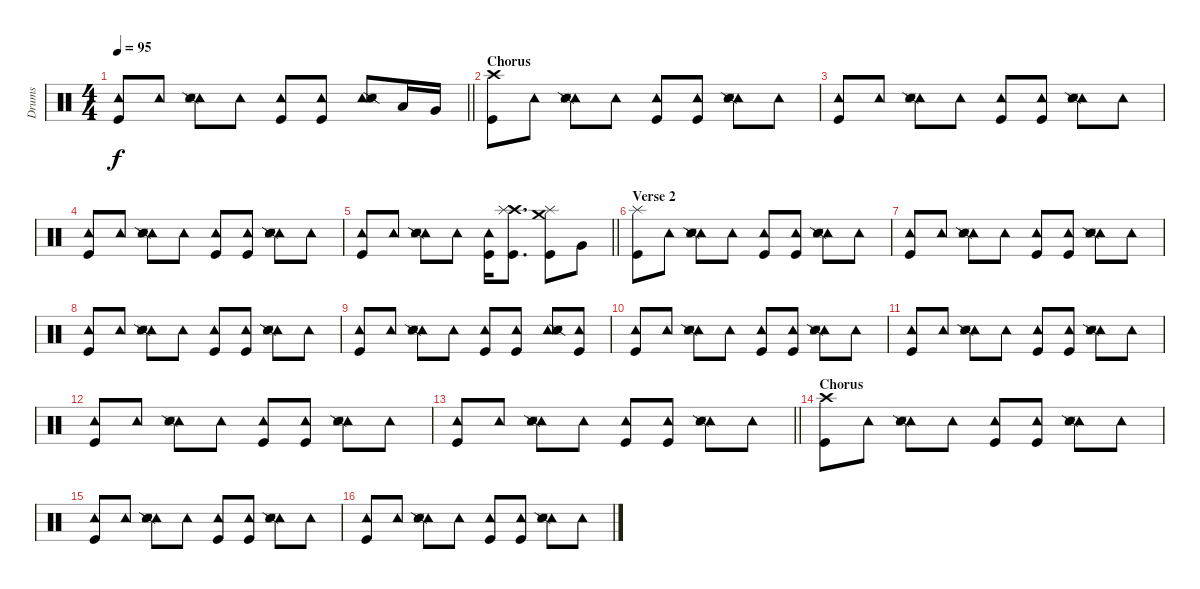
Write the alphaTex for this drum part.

\track ("Drums" "Drums") {instrument percussion}
\staff {score}
\articulation defaults
\ts (4 4)
\tempo 95
\clef neutral
\barLineRight lightlight
\ks c
("Tambourine (hit)" "Kick (hit)").8{dy f} "Tambourine (hit)".8 ("Tambourine (hit)" "Snare (side stick) 3" "Snare (side stick) 2").8 "Tambourine (hit)".8 ("Tambourine (hit)" "Kick (hit)").8 ("Tambourine (hit)" "Kick (hit)").8 ("Tambourine (hit)" "Snare (side stick) 3" "Snare (side stick) 2").8 "Low Tom (hit)".16 "Very Low Tom (hit)".16 |
\section ("" "Chorus")
("Crash high (hit)" "Kick (hit)").8 "Tambourine (hit)".8 ("Tambourine (hit)" "Snare (side stick) 3" "Snare (side stick) 2").8 "Tambourine (hit)".8 ("Tambourine (hit)" "Kick (hit)").8 ("Tambourine (hit)" "Kick (hit)").8 ("Tambourine (hit)" "Snare (side stick) 3" "Snare (side stick) 2").8 "Tambourine (hit)".8 |
("Tambourine (hit)" "Kick (hit)").8 "Tambourine (hit)".8 ("Tambourine (hit)" "Snare (side stick) 3" "Snare (side stick) 2").8 "Tambourine (hit)".8 ("Tambourine (hit)" "Kick (hit)").8 ("Tambourine (hit)" "Kick (hit)").8 ("Tambourine (hit)" "Snare (side stick) 3" "Snare (side stick) 2").8 "Tambourine (hit)".8 |
("Tambourine (hit)" "Kick (hit)").8 "Tambourine (hit)".8 ("Tambourine (hit)" "Snare (side stick) 3" "Snare (side stick) 2").8 "Tambourine (hit)".8 ("Tambourine (hit)" "Kick (hit)").8 ("Tambourine (hit)" "Kick (hit)").8 ("Tambourine (hit)" "Snare (side stick) 3" "Snare (side stick) 2").8 "Tambourine (hit)".8 |
\barLineRight lightlight
("Tambourine (hit)" "Kick (hit)").8 "Tambourine (hit)".8 ("Tambourine (hit)" "Snare (side stick) 3" "Snare (side stick) 2").8 "Tambourine (hit)".8 ("Tambourine (hit)" "Kick (hit)").16 ("Crash high (hit)" "Splash (hit)" "Kick (hit)").8{d} ("Crash medium (hit)" "Splash (hit)" "Kick (hit)").8 "Very Low Tom (hit)".8 |
\section ("" "Verse 2")
("Splash (hit)" "Kick (hit)").8 "Tambourine (hit)".8 ("Tambourine (hit)" "Snare (side stick) 3" "Snare (side stick) 2").8 "Tambourine (hit)".8 ("Tambourine (hit)" "Kick (hit)").8 ("Tambourine (hit)" "Kick (hit)").8 ("Tambourine (hit)" "Snare (side stick) 3" "Snare (side stick) 2").8 "Tambourine (hit)".8 |
("Tambourine (hit)" "Kick (hit)").8 "Tambourine (hit)".8 ("Tambourine (hit)" "Snare (side stick) 3" "Snare (side stick) 2").8 "Tambourine (hit)".8 ("Tambourine (hit)" "Kick (hit)").8 ("Tambourine (hit)" "Kick (hit)").8 ("Tambourine (hit)" "Snare (side stick) 3" "Snare (side stick) 2").8 "Tambourine (hit)".8 |
("Tambourine (hit)" "Kick (hit)").8 "Tambourine (hit)".8 ("Tambourine (hit)" "Snare (side stick) 3" "Snare (side stick) 2").8 "Tambourine (hit)".8 ("Tambourine (hit)" "Kick (hit)").8 ("Tambourine (hit)" "Kick (hit)").8 ("Tambourine (hit)" "Snare (side stick) 3" "Snare (side stick) 2").8 "Tambourine (hit)".8 |
("Tambourine (hit)" "Kick (hit)").8 "Tambourine (hit)".8 ("Tambourine (hit)" "Snare (side stick) 3" "Snare (side stick) 2").8 "Tambourine (hit)".8 ("Tambourine (hit)" "Kick (hit)").8 ("Tambourine (hit)" "Kick (hit)").8 ("Tambourine (hit)" "Snare (side stick) 3" "Snare (side stick) 2").8 ("Tambourine (hit)" "Kick (hit)").8 |
("Tambourine (hit)" "Kick (hit)").8 "Tambourine (hit)".8 ("Tambourine (hit)" "Snare (side stick) 3" "Snare (side stick) 2").8 "Tambourine (hit)".8 ("Tambourine (hit)" "Kick (hit)").8 ("Tambourine (hit)" "Kick (hit)").8 ("Tambourine (hit)" "Snare (side stick) 3" "Snare (side stick) 2").8 "Tambourine (hit)".8 |
("Tambourine (hit)" "Kick (hit)").8 "Tambourine (hit)".8 ("Tambourine (hit)" "Snare (side stick) 3" "Snare (side stick) 2").8 "Tambourine (hit)".8 ("Tambourine (hit)" "Kick (hit)").8 ("Tambourine (hit)" "Kick (hit)").8 ("Tambourine (hit)" "Snare (side stick) 3" "Snare (side stick) 2").8 "Tambourine (hit)".8 |
("Tambourine (hit)" "Kick (hit)").8 "Tambourine (hit)".8 ("Tambourine (hit)" "Snare (side stick) 3" "Snare (side stick) 2").8 "Tambourine (hit)".8 ("Tambourine (hit)" "Kick (hit)").8 ("Tambourine (hit)" "Kick (hit)").8 ("Tambourine (hit)" "Snare (side stick) 3" "Snare (side stick) 2").8 "Tambourine (hit)".8 |
\barLineRight lightlight
("Tambourine (hit)" "Kick (hit)").8 "Tambourine (hit)".8 ("Tambourine (hit)" "Snare (side stick) 3" "Snare (side stick) 2").8 "Tambourine (hit)".8 ("Tambourine (hit)" "Kick (hit)").8 ("Tambourine (hit)" "Kick (hit)").8 ("Tambourine (hit)" "Snare (side stick) 3" "Snare (side stick) 2").8 "Tambourine (hit)".8 |
\section ("" "Chorus")
("Crash high (hit)" "Kick (hit)").8 "Tambourine (hit)".8 ("Tambourine (hit)" "Snare (side stick) 3" "Snare (side stick) 2").8 "Tambourine (hit)".8 ("Tambourine (hit)" "Kick (hit)").8 ("Tambourine (hit)" "Kick (hit)").8 ("Tambourine (hit)" "Snare (side stick) 3" "Snare (side stick) 2").8 "Tambourine (hit)".8 |
("Tambourine (hit)" "Kick (hit)").8 "Tambourine (hit)".8 ("Tambourine (hit)" "Snare (side stick) 3" "Snare (side stick) 2").8 "Tambourine (hit)".8 ("Tambourine (hit)" "Kick (hit)").8 ("Tambourine (hit)" "Kick (hit)").8 ("Tambourine (hit)" "Snare (side stick) 3" "Snare (side stick) 2").8 "Tambourine (hit)".8 |
("Tambourine (hit)" "Kick (hit)").8 "Tambourine (hit)".8 ("Tambourine (hit)" "Snare (side stick) 3" "Snare (side stick) 2").8 "Tambourine (hit)".8 ("Tambourine (hit)" "Kick (hit)").8 ("Tambourine (hit)" "Kick (hit)").8 ("Tambourine (hit)" "Snare (side stick) 3" "Snare (side stick) 2").8 "Tambourine (hit)".8
